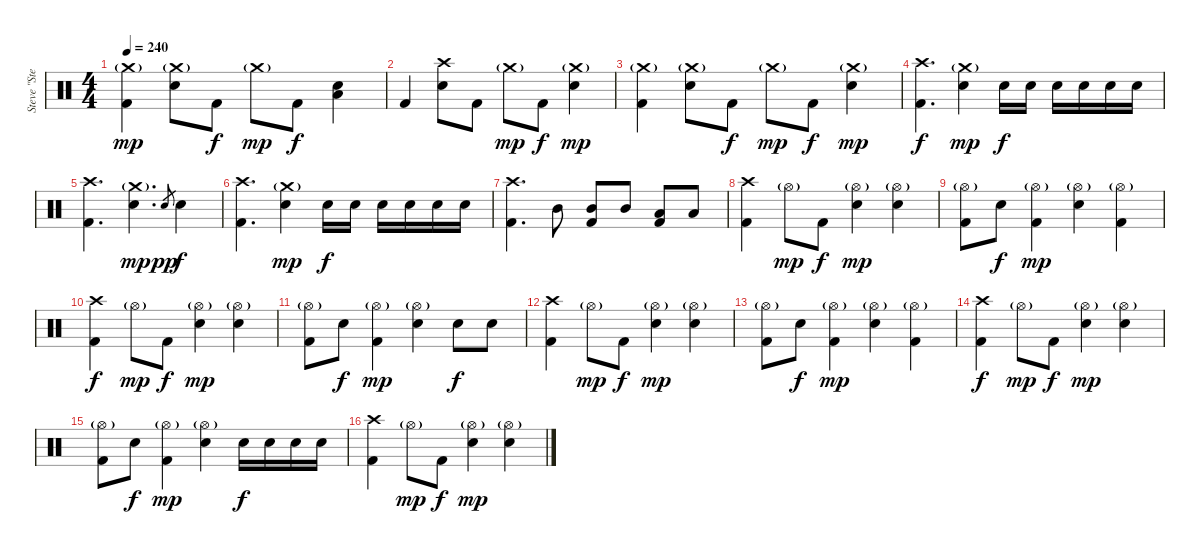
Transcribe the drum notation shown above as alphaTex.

\track ("Steve \"Stevo32\" Jocz " "Steve \"Ste") {instrument percussion}
\staff {score}
\articulation defaults
\ts (4 4)
\tempo 240
\clef neutral
\ks c
("Crash medium (hit)"{g} "Kick (hit) 2").4{dy mp} ("Crash medium (hit)"{g} "Electric Snare (hit)").8 "Kick (hit) 2".8{dy f} "Crash medium (hit)"{g}.8{dy mp} "Kick (hit) 2".8{dy f} ("Electric Snare (hit)" "Low Tom (hit)").4 |
"Kick (hit) 2".4 ("Crash high (hit)" "Electric Snare (hit)").8 "Kick (hit) 2".8 "Crash medium (hit)"{g}.8{dy mp} "Kick (hit) 2".8{dy f} ("Crash medium (hit)"{g} "Electric Snare (hit)").4{dy mp} |
("Crash medium (hit)"{g} "Kick (hit) 2").4 ("Crash medium (hit)"{g} "Electric Snare (hit)").8 "Kick (hit) 2".8{dy f} "Crash medium (hit)"{g}.8{dy mp} "Kick (hit) 2".8{dy f} ("Crash medium (hit)"{g} "Electric Snare (hit)").4{dy mp} |
("Crash high (hit)" "Kick (hit) 2").4{d dy f} ("Crash medium (hit)"{g} "Electric Snare (hit)").4{dy mp} "Electric Snare (hit)".16{dy f} "Electric Snare (hit)".16 "Electric Snare (hit)".16 "Electric Snare (hit)".16 "Electric Snare (hit)".16 "Electric Snare (hit)".16 |
("Crash high (hit)" "Kick (hit) 2").4{d} ("Crash medium (hit)"{g} "Electric Snare (hit)").4{d dy mp} "Electric Snare (hit)".8{gr dy pp} "Electric Snare (hit)".4{dy f} |
("Crash high (hit)" "Kick (hit) 2").4{d} ("Crash medium (hit)"{g} "Electric Snare (hit)").4{dy mp} "Electric Snare (hit)".16{dy f} "Electric Snare (hit)".16 "Electric Snare (hit)".16 "Electric Snare (hit)".16 "Electric Snare (hit)".16 "Electric Snare (hit)".16 |
("Crash high (hit)" "Kick (hit) 2").4{d} "Mid Tom (hit)".8 ("Mid Tom (hit)" "Kick (hit) 2").8 "Mid Tom (hit)".8 ("Low Tom (hit)" "Kick (hit) 2").8 "Low Tom (hit)".8 |
("Crash high (hit)" "Kick (hit) 2").4 "Hi-Hat (open)"{g}.8{dy mp} "Kick (hit) 2".8{dy f} ("Hi-Hat (open)"{g} "Electric Snare (hit)").4{dy mp} ("Hi-Hat (open)"{g} "Electric Snare (hit)").4 |
("Hi-Hat (open)"{g} "Kick (hit) 2").8 "Electric Snare (hit)".8{dy f} ("Hi-Hat (open)"{g} "Kick (hit) 2").4{dy mp} ("Hi-Hat (open)"{g} "Electric Snare (hit)").4 ("Hi-Hat (open)"{g} "Kick (hit) 2").4 |
("Crash high (hit)" "Kick (hit) 2").4{dy f} "Hi-Hat (open)"{g}.8{dy mp} "Kick (hit) 2".8{dy f} ("Hi-Hat (open)"{g} "Electric Snare (hit)").4{dy mp} ("Hi-Hat (open)"{g} "Electric Snare (hit)").4 |
("Hi-Hat (open)"{g} "Kick (hit) 2").8 "Electric Snare (hit)".8{dy f} ("Hi-Hat (open)"{g} "Kick (hit) 2").4{dy mp} ("Hi-Hat (open)"{g} "Electric Snare (hit)").4 "Electric Snare (hit)".8{dy f} "Electric Snare (hit)".8 |
("Crash high (hit)" "Kick (hit) 2").4 "Hi-Hat (open)"{g}.8{dy mp} "Kick (hit) 2".8{dy f} ("Hi-Hat (open)"{g} "Electric Snare (hit)").4{dy mp} ("Hi-Hat (open)"{g} "Electric Snare (hit)").4 |
("Hi-Hat (open)"{g} "Kick (hit) 2").8 "Electric Snare (hit)".8{dy f} ("Hi-Hat (open)"{g} "Kick (hit) 2").4{dy mp} ("Hi-Hat (open)"{g} "Electric Snare (hit)").4 ("Hi-Hat (open)"{g} "Kick (hit) 2").4 |
("Crash high (hit)" "Kick (hit) 2").4{dy f} "Hi-Hat (open)"{g}.8{dy mp} "Kick (hit) 2".8{dy f} ("Hi-Hat (open)"{g} "Electric Snare (hit)").4{dy mp} ("Hi-Hat (open)"{g} "Electric Snare (hit)").4 |
("Hi-Hat (open)"{g} "Kick (hit) 2").8 "Electric Snare (hit)".8{dy f} ("Hi-Hat (open)"{g} "Kick (hit) 2").4{dy mp} ("Hi-Hat (open)"{g} "Electric Snare (hit)").4 "Electric Snare (hit)".16{dy f} "Electric Snare (hit)".16 "Electric Snare (hit)".16 "Electric Snare (hit)".16 |
("Crash high (hit)" "Kick (hit) 2").4 "Hi-Hat (open)"{g}.8{dy mp} "Kick (hit) 2".8{dy f} ("Hi-Hat (open)"{g} "Electric Snare (hit)").4{dy mp} ("Hi-Hat (open)"{g} "Electric Snare (hit)").4
